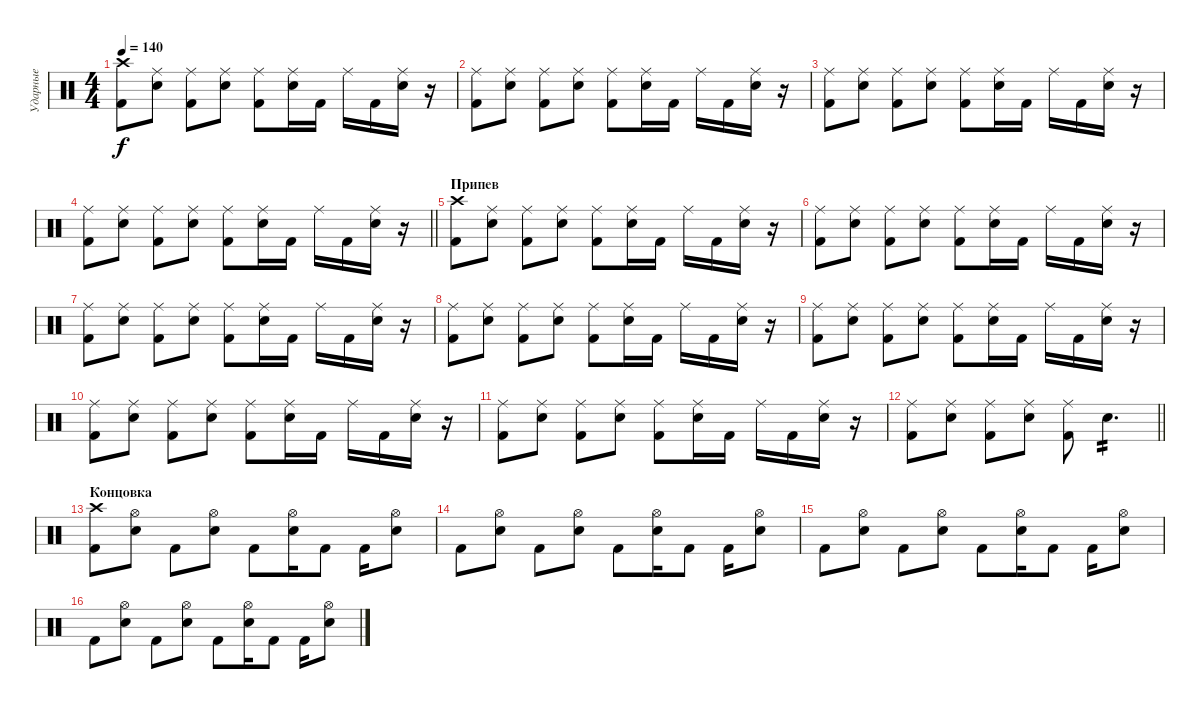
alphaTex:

\track ("Ударные" "Ударные") {instrument percussion}
\staff {score}
\articulation defaults
\ts (4 4)
\tempo 140
\clef neutral
\ks c
("Crash high (hit)" "Kick (hit) 2").8{dy f} ("Ride (middle)" "Electric Snare (hit)").8 ("Ride (middle)" "Kick (hit) 2").8 ("Ride (middle)" "Electric Snare (hit)").8 ("Ride (middle)" "Kick (hit) 2").8 ("Ride (middle)" "Electric Snare (hit)").16 "Kick (hit) 2".16 "Ride (middle)".16 "Kick (hit) 2".16 ("Ride (middle)" "Electric Snare (hit)").16 r.16 |
("Ride (middle)" "Kick (hit) 2").8 ("Ride (middle)" "Electric Snare (hit)").8 ("Ride (middle)" "Kick (hit) 2").8 ("Ride (middle)" "Electric Snare (hit)").8 ("Ride (middle)" "Kick (hit) 2").8 ("Ride (middle)" "Electric Snare (hit)").16 "Kick (hit) 2".16 "Ride (middle)".16 "Kick (hit) 2".16 ("Ride (middle)" "Electric Snare (hit)").16 r.16 |
("Ride (middle)" "Kick (hit) 2").8 ("Ride (middle)" "Electric Snare (hit)").8 ("Ride (middle)" "Kick (hit) 2").8 ("Ride (middle)" "Electric Snare (hit)").8 ("Ride (middle)" "Kick (hit) 2").8 ("Ride (middle)" "Electric Snare (hit)").16 "Kick (hit) 2".16 "Ride (middle)".16 "Kick (hit) 2".16 ("Ride (middle)" "Electric Snare (hit)").16 r.16 |
\barLineRight lightlight
("Ride (middle)" "Kick (hit) 2").8 ("Ride (middle)" "Electric Snare (hit)").8 ("Ride (middle)" "Kick (hit) 2").8 ("Ride (middle)" "Electric Snare (hit)").8 ("Ride (middle)" "Kick (hit) 2").8 ("Ride (middle)" "Electric Snare (hit)").16 "Kick (hit) 2".16 "Ride (middle)".16 "Kick (hit) 2".16 ("Ride (middle)" "Electric Snare (hit)").16 r.16 |
\section ("" "Припев")
("Crash high (hit)" "Kick (hit) 2").8 ("Ride (middle)" "Electric Snare (hit)").8 ("Ride (middle)" "Kick (hit) 2").8 ("Ride (middle)" "Electric Snare (hit)").8 ("Ride (middle)" "Kick (hit) 2").8 ("Ride (middle)" "Electric Snare (hit)").16 "Kick (hit) 2".16 "Ride (middle)".16 "Kick (hit) 2".16 ("Ride (middle)" "Electric Snare (hit)").16 r.16 |
("Ride (middle)" "Kick (hit) 2").8 ("Ride (middle)" "Electric Snare (hit)").8 ("Ride (middle)" "Kick (hit) 2").8 ("Ride (middle)" "Electric Snare (hit)").8 ("Ride (middle)" "Kick (hit) 2").8 ("Ride (middle)" "Electric Snare (hit)").16 "Kick (hit) 2".16 "Ride (middle)".16 "Kick (hit) 2".16 ("Ride (middle)" "Electric Snare (hit)").16 r.16 |
("Ride (middle)" "Kick (hit) 2").8 ("Ride (middle)" "Electric Snare (hit)").8 ("Ride (middle)" "Kick (hit) 2").8 ("Ride (middle)" "Electric Snare (hit)").8 ("Ride (middle)" "Kick (hit) 2").8 ("Ride (middle)" "Electric Snare (hit)").16 "Kick (hit) 2".16 "Ride (middle)".16 "Kick (hit) 2".16 ("Ride (middle)" "Electric Snare (hit)").16 r.16 |
("Ride (middle)" "Kick (hit) 2").8 ("Ride (middle)" "Electric Snare (hit)").8 ("Ride (middle)" "Kick (hit) 2").8 ("Ride (middle)" "Electric Snare (hit)").8 ("Ride (middle)" "Kick (hit) 2").8 ("Ride (middle)" "Electric Snare (hit)").16 "Kick (hit) 2".16 "Ride (middle)".16 "Kick (hit) 2".16 ("Ride (middle)" "Electric Snare (hit)").16 r.16 |
("Ride (middle)" "Kick (hit) 2").8 ("Ride (middle)" "Electric Snare (hit)").8 ("Ride (middle)" "Kick (hit) 2").8 ("Ride (middle)" "Electric Snare (hit)").8 ("Ride (middle)" "Kick (hit) 2").8 ("Ride (middle)" "Electric Snare (hit)").16 "Kick (hit) 2".16 "Ride (middle)".16 "Kick (hit) 2".16 ("Ride (middle)" "Electric Snare (hit)").16 r.16 |
("Ride (middle)" "Kick (hit) 2").8 ("Ride (middle)" "Electric Snare (hit)").8 ("Ride (middle)" "Kick (hit) 2").8 ("Ride (middle)" "Electric Snare (hit)").8 ("Ride (middle)" "Kick (hit) 2").8 ("Ride (middle)" "Electric Snare (hit)").16 "Kick (hit) 2".16 "Ride (middle)".16 "Kick (hit) 2".16 ("Ride (middle)" "Electric Snare (hit)").16 r.16 |
("Ride (middle)" "Kick (hit) 2").8 ("Ride (middle)" "Electric Snare (hit)").8 ("Ride (middle)" "Kick (hit) 2").8 ("Ride (middle)" "Electric Snare (hit)").8 ("Ride (middle)" "Kick (hit) 2").8 ("Ride (middle)" "Electric Snare (hit)").16 "Kick (hit) 2".16 "Ride (middle)".16 "Kick (hit) 2".16 ("Ride (middle)" "Electric Snare (hit)").16 r.16 |
\barLineRight lightlight
("Ride (middle)" "Kick (hit) 2").8 ("Ride (middle)" "Electric Snare (hit)").8 ("Ride (middle)" "Kick (hit) 2").8 ("Ride (middle)" "Electric Snare (hit)").8 ("Ride (middle)" "Kick (hit) 2").8 "Electric Snare (hit)".4{d tp 2} |
\section ("" "Концовка")
("Crash high (hit)" "Kick (hit) 2").8 ("Hi-Hat (open)" "Electric Snare (hit)").8 "Kick (hit) 2".8 ("Hi-Hat (open)" "Electric Snare (hit)").8 "Kick (hit) 2".8 ("Hi-Hat (open)" "Electric Snare (hit)").16 "Kick (hit) 2".8 "Kick (hit) 2".16 ("Hi-Hat (open)" "Electric Snare (hit)").8 |
"Kick (hit) 2".8 ("Hi-Hat (open)" "Electric Snare (hit)").8 "Kick (hit) 2".8 ("Hi-Hat (open)" "Electric Snare (hit)").8 "Kick (hit) 2".8 ("Hi-Hat (open)" "Electric Snare (hit)").16 "Kick (hit) 2".8 "Kick (hit) 2".16 ("Hi-Hat (open)" "Electric Snare (hit)").8 |
"Kick (hit) 2".8 ("Hi-Hat (open)" "Electric Snare (hit)").8 "Kick (hit) 2".8 ("Hi-Hat (open)" "Electric Snare (hit)").8 "Kick (hit) 2".8 ("Hi-Hat (open)" "Electric Snare (hit)").16 "Kick (hit) 2".8 "Kick (hit) 2".16 ("Hi-Hat (open)" "Electric Snare (hit)").8 |
"Kick (hit) 2".8 ("Hi-Hat (open)" "Electric Snare (hit)").8 "Kick (hit) 2".8 ("Hi-Hat (open)" "Electric Snare (hit)").8 "Kick (hit) 2".8 ("Hi-Hat (open)" "Electric Snare (hit)").16 "Kick (hit) 2".8 "Kick (hit) 2".16 ("Hi-Hat (open)" "Electric Snare (hit)").8
